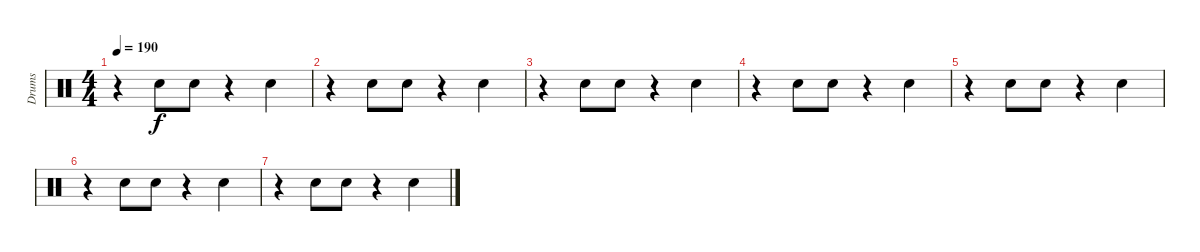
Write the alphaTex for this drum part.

\track ("Drums" "Drums") {instrument percussion}
\staff {score}
\articulation defaults
\ts (4 4)
\tempo 190
\clef neutral
\ks c
r.4{dy f} "Hand Clap (hit)".8 "Hand Clap (hit)".8 r.4 "Hand Clap (hit)".4 |
r.4 "Hand Clap (hit)".8 "Hand Clap (hit)".8 r.4 "Hand Clap (hit)".4 |
r.4 "Hand Clap (hit)".8 "Hand Clap (hit)".8 r.4 "Hand Clap (hit)".4 |
r.4 "Hand Clap (hit)".8 "Hand Clap (hit)".8 r.4 "Hand Clap (hit)".4 |
r.4 "Hand Clap (hit)".8 "Hand Clap (hit)".8 r.4 "Hand Clap (hit)".4 |
r.4 "Hand Clap (hit)".8 "Hand Clap (hit)".8 r.4 "Hand Clap (hit)".4 |
r.4 "Hand Clap (hit)".8 "Hand Clap (hit)".8 r.4 "Hand Clap (hit)".4
